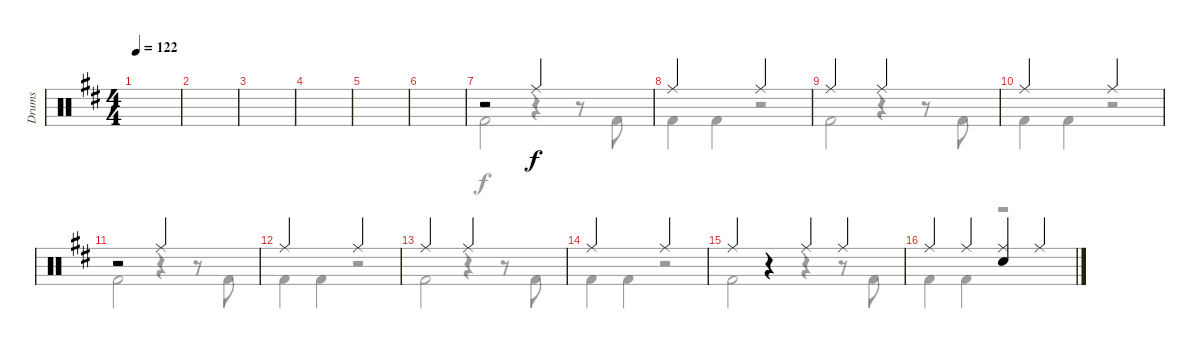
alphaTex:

\track ("Drums" "Drums") {instrument percussion}
\staff {score}
\articulation defaults
\voice
\ts (4 4)
\tempo 122
\clef neutral
\ks d
|
|
|
|
|
|
r.2 "Ride (middle)".2{dy f} |
"Ride (middle)".2 "Ride (middle)".2 |
"Ride (middle)".2 "Ride (middle)".2 |
"Ride (middle)".2 "Ride (middle)".2 |
r.2 "Ride (middle)".2 |
"Ride (middle)".2 "Ride (middle)".2 |
"Ride (middle)".2 "Ride (middle)".2 |
"Ride (middle)".2 "Ride (middle)".2 |
"Ride (middle)".4 r.4 "Ride (middle)".4 "Ride (middle)".4 |
"Ride (middle)".4 "Ride (middle)".4 ("Ride (middle)" "Electric Snare (hit)").4 "Ride (middle)".4
\voice
\clef neutral
\ottava regular
\simile none
\ks d
|
|
|
|
|
|
"Kick (hit) 2".2{dy f} r.4 r.8 "Kick (hit) 2".8 |
"Kick (hit) 2".4 "Kick (hit) 2".4 r.2 |
"Kick (hit) 2".2 r.4 r.8 "Kick (hit) 2".8 |
"Kick (hit) 2".4 "Kick (hit) 2".4 r.2 |
"Kick (hit) 2".2 r.4 r.8 "Kick (hit) 2".8 |
"Kick (hit) 2".4 "Kick (hit) 2".4 r.2 |
"Kick (hit) 2".2 r.4 r.8 "Kick (hit) 2".8 |
"Kick (hit) 2".4 "Kick (hit) 2".4 r.2 |
"Kick (hit) 2".2 r.4 r.8 "Kick (hit) 2".8 |
"Kick (hit) 2".4 "Kick (hit) 2".4 r.2
